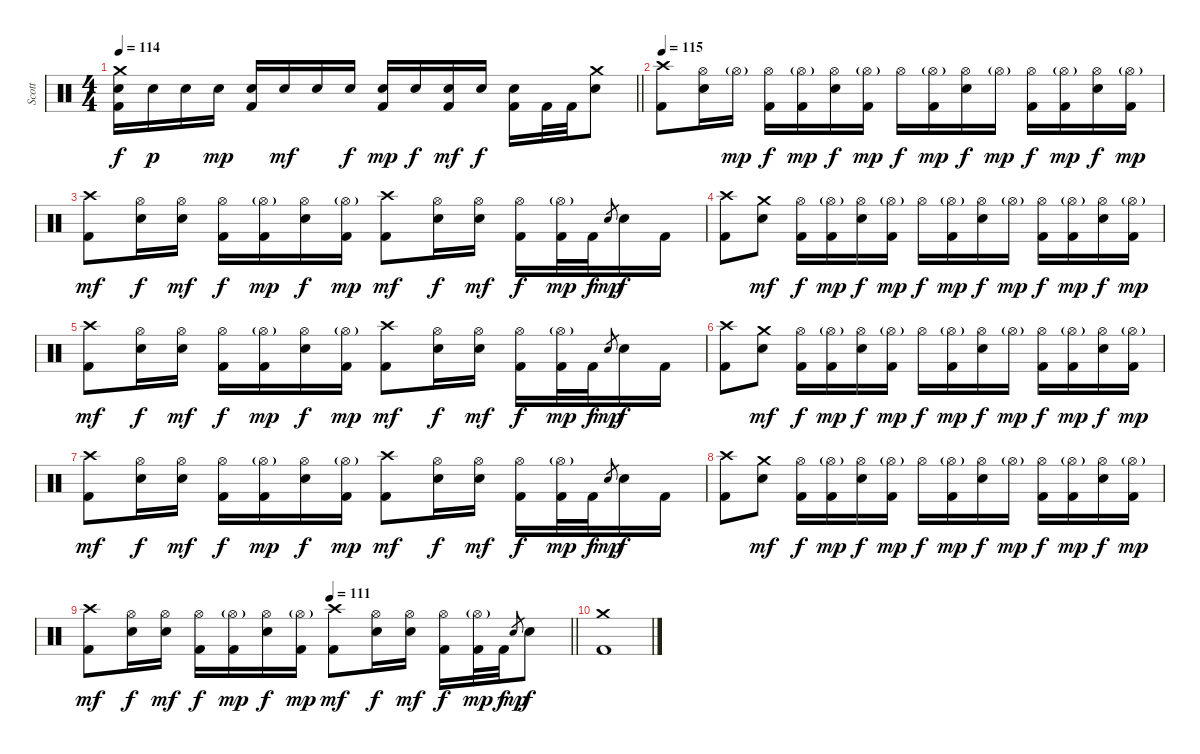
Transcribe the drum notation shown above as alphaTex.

\track ("Scott" "Scott") {instrument percussion}
\staff {score}
\articulation defaults
\ts (4 4)
\tempo 114
\clef neutral
\barLineRight lightlight
\ks c
("Crash medium (hit)" "Electric Snare (hit)" "Kick (hit) 2").16{dy f} "Electric Snare (hit)".16{dy p} "Electric Snare (hit)".16 "Electric Snare (hit)".16{dy mp} ("Electric Snare (hit)" "Kick (hit) 2").16 "Electric Snare (hit)".16{dy mf} "Electric Snare (hit)".16 "Electric Snare (hit)".16{dy f} ("Electric Snare (hit)" "Kick (hit) 2").16{dy mp} "Electric Snare (hit)".16{dy f} ("Electric Snare (hit)" "Kick (hit) 2").16{dy mf} "Electric Snare (hit)".16{dy f} ("Electric Snare (hit)" "Kick (hit) 2").16 "Kick (hit) 2".32 "Kick (hit) 2".32 ("Crash medium (hit)" "Electric Snare (hit)").8 |
\section ("" "")
\tempo 115
("Crash high (hit)" "Kick (hit) 2").8 ("Hi-Hat (open)" "Electric Snare (hit)").16 "Hi-Hat (open)"{g}.16{dy mp} ("Hi-Hat (open)" "Kick (hit) 2").16{dy f} ("Hi-Hat (open)"{g} "Kick (hit) 2").16{dy mp} ("Hi-Hat (open)" "Electric Snare (hit)").16{dy f} ("Hi-Hat (open)"{g} "Kick (hit) 2").16{dy mp} "Hi-Hat (open)".16{dy f} ("Hi-Hat (open)"{g} "Kick (hit) 2").16{dy mp} ("Hi-Hat (open)" "Electric Snare (hit)").16{dy f} "Hi-Hat (open)"{g}.16{dy mp} ("Hi-Hat (open)" "Kick (hit) 2").16{dy f} ("Hi-Hat (open)"{g} "Kick (hit) 2").16{dy mp} ("Hi-Hat (open)" "Electric Snare (hit)").16{dy f} ("Hi-Hat (open)"{g} "Kick (hit) 2").16{dy mp} |
("Crash high (hit)" "Kick (hit) 2").8{dy mf} ("Hi-Hat (open)" "Electric Snare (hit)").16{dy f} ("Hi-Hat (open)" "Electric Snare (hit)").16{dy mf} ("Hi-Hat (open)" "Kick (hit) 2").16{dy f} ("Hi-Hat (open)"{g} "Kick (hit) 2").16{dy mp} ("Hi-Hat (open)" "Electric Snare (hit)").16{dy f} ("Hi-Hat (open)"{g} "Kick (hit) 2").16{dy mp} ("Crash high (hit)" "Kick (hit) 2").8{dy mf} ("Hi-Hat (open)" "Electric Snare (hit)").16{dy f} ("Hi-Hat (open)" "Electric Snare (hit)").16{dy mf} ("Hi-Hat (open)" "Kick (hit) 2").16{dy f} ("Hi-Hat (open)"{g} "Kick (hit) 2").32{dy mp} "Kick (hit) 2".32{dy f} "Electric Snare (hit)".8{gr dy mp} "Electric Snare (hit)".16{dy f} "Kick (hit) 2".16 |
("Crash high (hit)" "Kick (hit) 2").8 ("Crash medium (hit)" "Electric Snare (hit)").8{dy mf} ("Hi-Hat (open)" "Kick (hit) 2").16{dy f} ("Hi-Hat (open)"{g} "Kick (hit) 2").16{dy mp} ("Hi-Hat (open)" "Electric Snare (hit)").16{dy f} ("Hi-Hat (open)"{g} "Kick (hit) 2").16{dy mp} "Hi-Hat (open)".16{dy f} ("Hi-Hat (open)"{g} "Kick (hit) 2").16{dy mp} ("Hi-Hat (open)" "Electric Snare (hit)").16{dy f} "Hi-Hat (open)"{g}.16{dy mp} ("Hi-Hat (open)" "Kick (hit) 2").16{dy f} ("Hi-Hat (open)"{g} "Kick (hit) 2").16{dy mp} ("Hi-Hat (open)" "Electric Snare (hit)").16{dy f} ("Hi-Hat (open)"{g} "Kick (hit) 2").16{dy mp} |
("Crash high (hit)" "Kick (hit) 2").8{dy mf} ("Hi-Hat (open)" "Electric Snare (hit)").16{dy f} ("Hi-Hat (open)" "Electric Snare (hit)").16{dy mf} ("Hi-Hat (open)" "Kick (hit) 2").16{dy f} ("Hi-Hat (open)"{g} "Kick (hit) 2").16{dy mp} ("Hi-Hat (open)" "Electric Snare (hit)").16{dy f} ("Hi-Hat (open)"{g} "Kick (hit) 2").16{dy mp} ("Crash high (hit)" "Kick (hit) 2").8{dy mf} ("Hi-Hat (open)" "Electric Snare (hit)").16{dy f} ("Hi-Hat (open)" "Electric Snare (hit)").16{dy mf} ("Hi-Hat (open)" "Kick (hit) 2").16{dy f} ("Hi-Hat (open)"{g} "Kick (hit) 2").32{dy mp} "Kick (hit) 2".32{dy f} "Electric Snare (hit)".8{gr dy mp} "Electric Snare (hit)".16{dy f} "Kick (hit) 2".16 |
("Crash high (hit)" "Kick (hit) 2").8 ("Crash medium (hit)" "Electric Snare (hit)").8{dy mf} ("Hi-Hat (open)" "Kick (hit) 2").16{dy f} ("Hi-Hat (open)"{g} "Kick (hit) 2").16{dy mp} ("Hi-Hat (open)" "Electric Snare (hit)").16{dy f} ("Hi-Hat (open)"{g} "Kick (hit) 2").16{dy mp} "Hi-Hat (open)".16{dy f} ("Hi-Hat (open)"{g} "Kick (hit) 2").16{dy mp} ("Hi-Hat (open)" "Electric Snare (hit)").16{dy f} "Hi-Hat (open)"{g}.16{dy mp} ("Hi-Hat (open)" "Kick (hit) 2").16{dy f} ("Hi-Hat (open)"{g} "Kick (hit) 2").16{dy mp} ("Hi-Hat (open)" "Electric Snare (hit)").16{dy f} ("Hi-Hat (open)"{g} "Kick (hit) 2").16{dy mp} |
("Crash high (hit)" "Kick (hit) 2").8{dy mf} ("Hi-Hat (open)" "Electric Snare (hit)").16{dy f} ("Hi-Hat (open)" "Electric Snare (hit)").16{dy mf} ("Hi-Hat (open)" "Kick (hit) 2").16{dy f} ("Hi-Hat (open)"{g} "Kick (hit) 2").16{dy mp} ("Hi-Hat (open)" "Electric Snare (hit)").16{dy f} ("Hi-Hat (open)"{g} "Kick (hit) 2").16{dy mp} ("Crash high (hit)" "Kick (hit) 2").8{dy mf} ("Hi-Hat (open)" "Electric Snare (hit)").16{dy f} ("Hi-Hat (open)" "Electric Snare (hit)").16{dy mf} ("Hi-Hat (open)" "Kick (hit) 2").16{dy f} ("Hi-Hat (open)"{g} "Kick (hit) 2").32{dy mp} "Kick (hit) 2".32{dy f} "Electric Snare (hit)".8{gr dy mp} "Electric Snare (hit)".16{dy f} "Kick (hit) 2".16 |
("Crash high (hit)" "Kick (hit) 2").8 ("Crash medium (hit)" "Electric Snare (hit)").8{dy mf} ("Hi-Hat (open)" "Kick (hit) 2").16{dy f} ("Hi-Hat (open)"{g} "Kick (hit) 2").16{dy mp} ("Hi-Hat (open)" "Electric Snare (hit)").16{dy f} ("Hi-Hat (open)"{g} "Kick (hit) 2").16{dy mp} "Hi-Hat (open)".16{dy f} ("Hi-Hat (open)"{g} "Kick (hit) 2").16{dy mp} ("Hi-Hat (open)" "Electric Snare (hit)").16{dy f} "Hi-Hat (open)"{g}.16{dy mp} ("Hi-Hat (open)" "Kick (hit) 2").16{dy f} ("Hi-Hat (open)"{g} "Kick (hit) 2").16{dy mp} ("Hi-Hat (open)" "Electric Snare (hit)").16{dy f} ("Hi-Hat (open)"{g} "Kick (hit) 2").16{dy mp} |
\tempo (111 0.5)
\barLineRight lightlight
("Crash high (hit)" "Kick (hit) 2").8{dy mf} ("Hi-Hat (open)" "Electric Snare (hit)").16{dy f} ("Hi-Hat (open)" "Electric Snare (hit)").16{dy mf} ("Hi-Hat (open)" "Kick (hit) 2").16{dy f} ("Hi-Hat (open)"{g} "Kick (hit) 2").16{dy mp} ("Hi-Hat (open)" "Electric Snare (hit)").16{dy f} ("Hi-Hat (open)"{g} "Kick (hit) 2").16{dy mp} ("Crash high (hit)" "Kick (hit) 2").8{dy mf} ("Hi-Hat (open)" "Electric Snare (hit)").16{dy f} ("Hi-Hat (open)" "Electric Snare (hit)").16{dy mf} ("Hi-Hat (open)" "Kick (hit) 2").16{dy f} ("Hi-Hat (open)"{g} "Kick (hit) 2").32{dy mp} "Kick (hit) 2".32{dy f} "Electric Snare (hit)".8{gr dy mp} "Electric Snare (hit)".8{dy f} |
("Crash medium (hit)" "Kick (hit) 2").1
